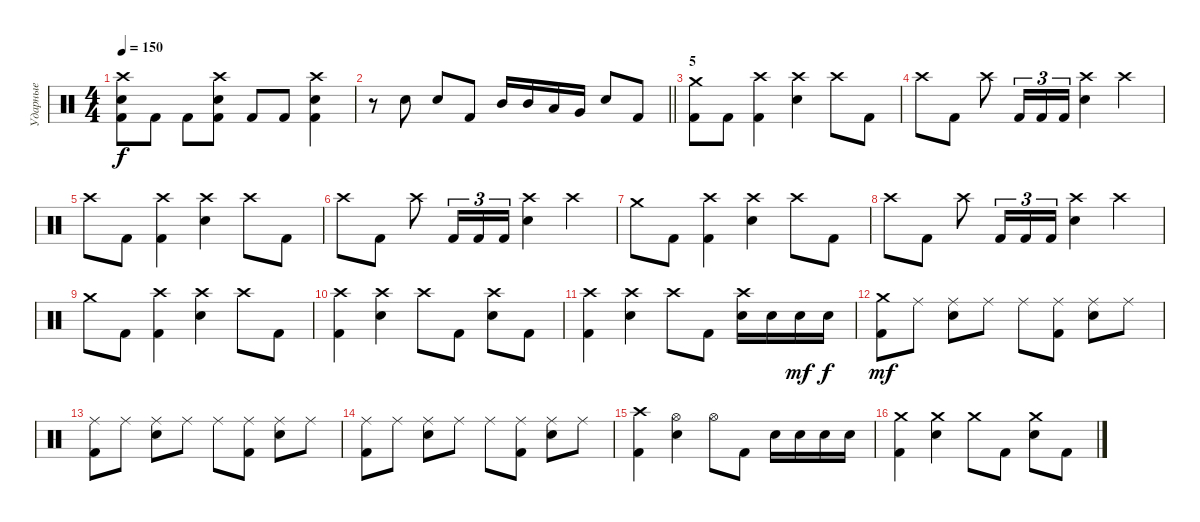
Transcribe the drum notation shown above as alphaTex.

\track ("Ударные" "Ударные") {instrument percussion}
\staff {score}
\articulation defaults
\ts (4 4)
\tempo 150
\clef neutral
\ks c
("Crash high (hit)" "Electric Snare (hit)" "Kick (hit) 2").8{dy f} "Kick (hit) 2".8 "Kick (hit) 2".8 ("Crash high (hit)" "Electric Snare (hit)" "Kick (hit) 2").8 "Kick (hit) 2".8 "Kick (hit) 2".8 ("Crash high (hit)" "Electric Snare (hit)" "Kick (hit) 2").4 |
\barLineRight lightlight
r.8 "Electric Snare (hit)".8 "Electric Snare (hit)".8 "Kick (hit) 2".8 "Mid Tom (hit)".16 "Mid Tom (hit)".16 "Low Tom (hit)".16 "Very Low Tom (hit)".16 "Electric Snare (hit)".8 "Kick (hit) 2".8 |
\section ("" "5")
("Crash medium (hit)" "Kick (hit) 2").8 "Kick (hit) 2".8 ("Crash high (hit)" "Kick (hit) 2").4 ("Crash high (hit)" "Electric Snare (hit)").4 "Crash high (hit)".8 "Kick (hit) 2".8 |
"Crash high (hit)".8 "Kick (hit) 2".8 "Crash high (hit)".8 "Kick (hit) 2".16{tu (3 2)} "Kick (hit) 2".16{tu (3 2)} "Kick (hit) 2".16{tu (3 2)} ("Crash high (hit)" "Electric Snare (hit)").4 "Crash high (hit)".4 |
"Crash high (hit)".8 "Kick (hit) 2".8 ("Crash high (hit)" "Kick (hit) 2").4 ("Crash high (hit)" "Electric Snare (hit)").4 "Crash high (hit)".8 "Kick (hit) 2".8 |
"Crash high (hit)".8 "Kick (hit) 2".8 "Crash high (hit)".8 "Kick (hit) 2".16{tu (3 2)} "Kick (hit) 2".16{tu (3 2)} "Kick (hit) 2".16{tu (3 2)} ("Crash high (hit)" "Electric Snare (hit)").4 "Crash high (hit)".4 |
"Crash medium (hit)".8 "Kick (hit) 2".8 ("Crash high (hit)" "Kick (hit) 2").4 ("Crash high (hit)" "Electric Snare (hit)").4 "Crash high (hit)".8 "Kick (hit) 2".8 |
"Crash high (hit)".8 "Kick (hit) 2".8 "Crash high (hit)".8 "Kick (hit) 2".16{tu (3 2)} "Kick (hit) 2".16{tu (3 2)} "Kick (hit) 2".16{tu (3 2)} ("Crash high (hit)" "Electric Snare (hit)").4 "Crash high (hit)".4 |
"Crash medium (hit)".8 "Kick (hit) 2".8 ("Crash high (hit)" "Kick (hit) 2").4 ("Crash high (hit)" "Electric Snare (hit)").4 "Crash high (hit)".8 "Kick (hit) 2".8 |
("Crash high (hit)" "Kick (hit) 2").4 ("Crash high (hit)" "Electric Snare (hit)").4 "Crash high (hit)".8 "Kick (hit) 2".8 ("Crash high (hit)" "Electric Snare (hit)").8 "Kick (hit) 2".8 |
("Crash high (hit)" "Kick (hit) 2").4 ("Crash high (hit)" "Electric Snare (hit)").4 "Crash high (hit)".8 "Kick (hit) 2".8 ("Crash high (hit)" "Snare (hit) 2").16 "Snare (hit) 2".16 "Snare (hit) 2".16{dy mf} "Snare (hit) 2".16{dy f} |
("Crash medium (hit)" "Kick (hit) 2").8{dy mf} "Ride (middle)".8 ("Ride (middle)" "Electric Snare (hit)").8 "Ride (middle)".8 "Ride (middle)".8 ("Ride (middle)" "Kick (hit) 2").8 ("Ride (middle)" "Electric Snare (hit)").8 "Ride (middle)".8 |
("Ride (middle)" "Kick (hit) 2").8 "Ride (middle)".8 ("Ride (middle)" "Electric Snare (hit)").8 "Ride (middle)".8 "Ride (middle)".8 ("Ride (middle)" "Kick (hit) 2").8 ("Ride (middle)" "Electric Snare (hit)").8 "Ride (middle)".8 |
("Ride (middle)" "Kick (hit) 2").8 "Ride (middle)".8 ("Ride (middle)" "Electric Snare (hit)").8 "Ride (middle)".8 "Ride (middle)".8 ("Ride (middle)" "Kick (hit) 2").8 ("Ride (middle)" "Electric Snare (hit)").8 "Ride (middle)".8 |
("Crash high (hit)" "Kick (hit) 2").4 ("Hi-Hat (open)" "Electric Snare (hit)").4 "Hi-Hat (open)".8 "Kick (hit) 2".8 "Electric Snare (hit)".16 "Electric Snare (hit)".16 "Electric Snare (hit)".16 "Electric Snare (hit)".16 |
("Crash medium (hit)" "Kick (hit) 2").4 ("Crash medium (hit)" "Electric Snare (hit)").4 "Crash medium (hit)".8 "Kick (hit) 2".8 ("Crash medium (hit)" "Electric Snare (hit)").8 "Kick (hit) 2".8
